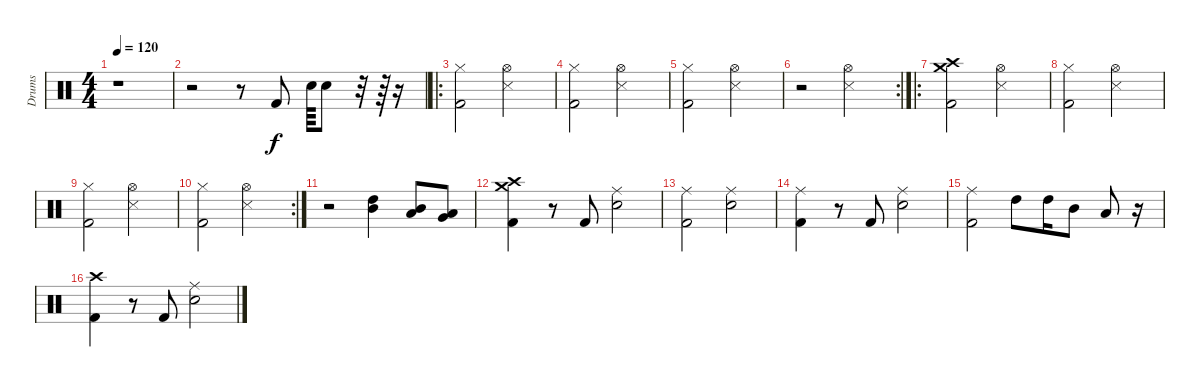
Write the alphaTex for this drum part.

\track ("Drums" "Drums") {instrument percussion}
\staff {score}
\articulation defaults
\ts (4 4)
\tempo 120
\clef neutral
\ks c
r.1{dy f} |
r.2 r.8 "Kick (hit) 2".8 "Electric Snare (hit)".64 "Electric Snare (hit)".8 r.32 r.64 r.16 |
\ro
("Kick (hit) 2" "Hi-Hat (closed)").2 ("Snare (side stick) 3" "Hi-Hat (open)").2 |
("Kick (hit) 2" "Hi-Hat (closed)").2 ("Snare (side stick) 3" "Hi-Hat (open)").2 |
("Kick (hit) 2" "Hi-Hat (closed)").2 ("Snare (side stick) 3" "Hi-Hat (open)").2 |
\rc 2
r.2 ("Snare (side stick) 3" "Hi-Hat (open)").2 |
\ro
("Kick (hit) 2" "Crash medium (hit)" "Crash high (hit)").2 ("Snare (side stick) 3" "Hi-Hat (open)").2 |
("Kick (hit) 2" "Hi-Hat (closed)").2 ("Snare (side stick) 3" "Hi-Hat (open)").2 |
("Kick (hit) 2" "Hi-Hat (closed)").2 ("Snare (side stick) 3" "Hi-Hat (open)").2 |
\rc 2
("Kick (hit) 2" "Hi-Hat (closed)").2 ("Snare (side stick) 3" "Hi-Hat (open)").2 |
r.2 ("Mid Tom (hit)" "High Tom (hit)").4 ("Low Tom (hit)" "Mid Tom (hit)").8 ("Very Low Tom (hit)" "Low Tom (hit)").8 |
("Kick (hit) 2" "Crash medium (hit)" "Crash high (hit)").4 r.8 "Kick (hit) 2".8 ("Electric Snare (hit)" "Ride (middle)").2 |
("Kick (hit) 2" "Ride (middle)").2 ("Electric Snare (hit)" "Ride (middle)").2 |
("Kick (hit) 2" "Ride (middle)").4 r.8 "Kick (hit) 2".8 ("Electric Snare (hit)" "Ride (middle)").2 |
("Kick (hit) 2" "Ride (middle)").2 "High Tom (hit)".8 "High Tom (hit)".16 "Mid Tom (hit)".8 "Low Tom (hit)".8 r.16 |
("Kick (hit) 2" "Crash high (hit)").4 r.8 "Kick (hit) 2".8 ("Electric Snare (hit)" "Ride (middle)").2
